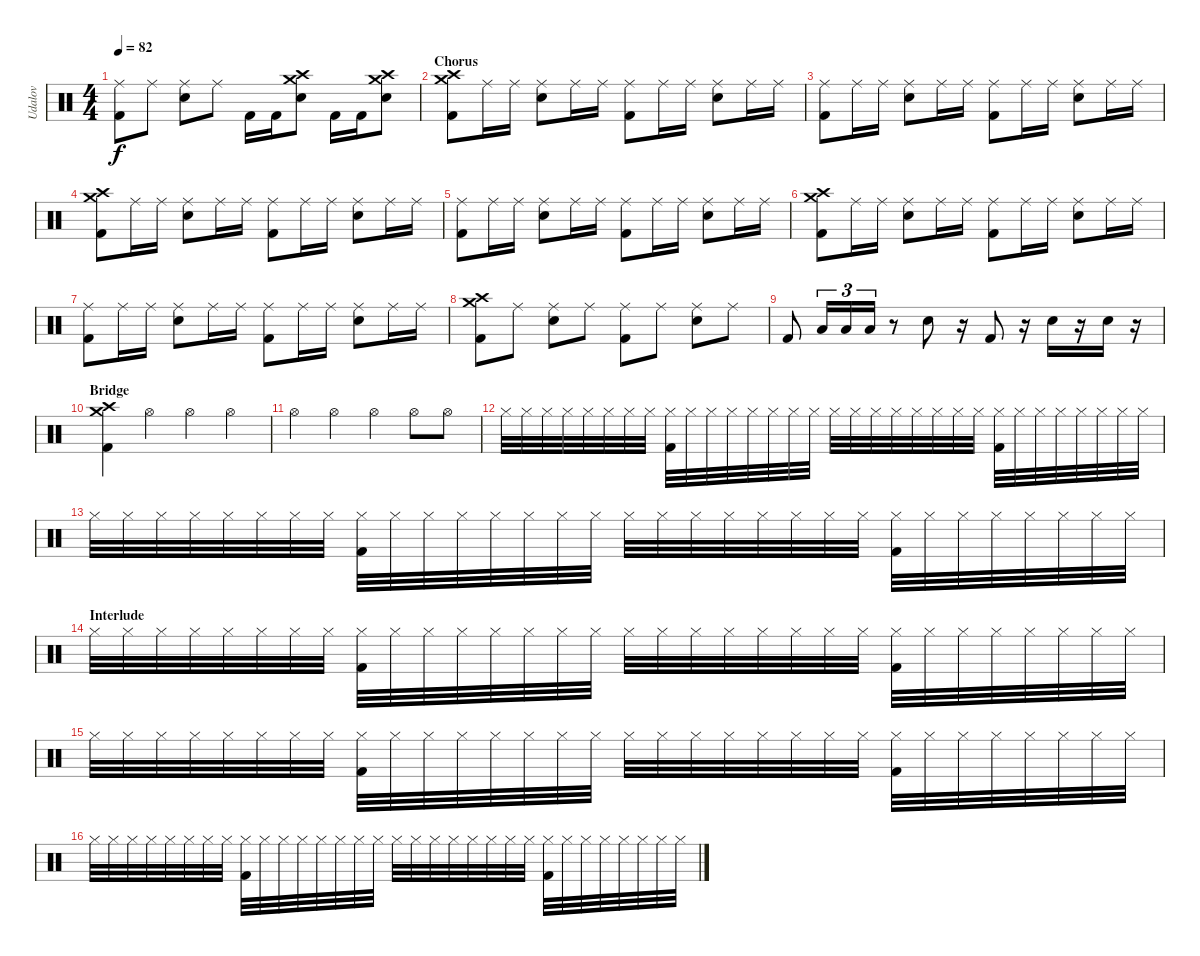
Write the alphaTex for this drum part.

\track ("Udalov" "Udalov") {instrument percussion}
\staff {score}
\articulation defaults
\ts (4 4)
\tempo 82
\clef neutral
\ks c
("Kick (hit) 2" "Ride (middle)").8{dy f} "Ride (middle)".8 ("Snare (hit) 2" "Ride (middle)").8 "Ride (middle)".8 "Kick (hit) 2".16 "Kick (hit) 2".16 ("Snare (hit) 2" "Crash high (hit)" "Crash medium (hit)").8 "Kick (hit) 2".16 "Kick (hit) 2".16 ("Snare (hit) 2" "Crash high (hit)" "Crash medium (hit)").8 |
\section ("" "Chorus")
("Kick (hit) 2" "Crash high (hit)" "Crash medium (hit)").8 "Ride (middle)".16 "Ride (middle)".16 ("Snare (hit) 2" "Ride (middle)").8 "Ride (middle)".16 "Ride (middle)".16 ("Kick (hit) 2" "Ride (middle)").8 "Ride (middle)".16 "Ride (middle)".16 ("Snare (hit) 2" "Ride (middle)").8 "Ride (middle)".16 "Ride (middle)".16 |
("Kick (hit) 2" "Ride (middle)").8 "Ride (middle)".16 "Ride (middle)".16 ("Snare (hit) 2" "Ride (middle)").8 "Ride (middle)".16 "Ride (middle)".16 ("Kick (hit) 2" "Ride (middle)").8 "Ride (middle)".16 "Ride (middle)".16 ("Snare (hit) 2" "Ride (middle)").8 "Ride (middle)".16 "Ride (middle)".16 |
("Kick (hit) 2" "Crash high (hit)" "Crash medium (hit)").8 "Ride (middle)".16 "Ride (middle)".16 ("Snare (hit) 2" "Ride (middle)").8 "Ride (middle)".16 "Ride (middle)".16 ("Kick (hit) 2" "Ride (middle)").8 "Ride (middle)".16 "Ride (middle)".16 ("Snare (hit) 2" "Ride (middle)").8 "Ride (middle)".16 "Ride (middle)".16 |
("Kick (hit) 2" "Ride (middle)").8 "Ride (middle)".16 "Ride (middle)".16 ("Snare (hit) 2" "Ride (middle)").8 "Ride (middle)".16 "Ride (middle)".16 ("Kick (hit) 2" "Ride (middle)").8 "Ride (middle)".16 "Ride (middle)".16 ("Snare (hit) 2" "Ride (middle)").8 "Ride (middle)".16 "Ride (middle)".16 |
("Kick (hit) 2" "Crash high (hit)" "Crash medium (hit)").8 "Ride (middle)".16 "Ride (middle)".16 ("Snare (hit) 2" "Ride (middle)").8 "Ride (middle)".16 "Ride (middle)".16 ("Kick (hit) 2" "Ride (middle)").8 "Ride (middle)".16 "Ride (middle)".16 ("Snare (hit) 2" "Ride (middle)").8 "Ride (middle)".16 "Ride (middle)".16 |
("Kick (hit) 2" "Ride (middle)").8 "Ride (middle)".16 "Ride (middle)".16 ("Snare (hit) 2" "Ride (middle)").8 "Ride (middle)".16 "Ride (middle)".16 ("Kick (hit) 2" "Ride (middle)").8 "Ride (middle)".16 "Ride (middle)".16 ("Snare (hit) 2" "Ride (middle)").8 "Ride (middle)".16 "Ride (middle)".16 |
("Kick (hit) 2" "Crash high (hit)" "Crash medium (hit)").8 "Ride (middle)".8 ("Snare (hit) 2" "Ride (middle)").8 "Ride (middle)".8 ("Kick (hit) 2" "Ride (middle)").8 "Ride (middle)".8 ("Snare (hit) 2" "Ride (middle)").8 "Ride (middle)".8 |
"Kick (hit) 2".8 "Low Tom (hit)".16{tu (3 2)} "Low Tom (hit)".16{tu (3 2)} "Low Tom (hit)".16{tu (3 2)} r.8 "Electric Snare (hit)".8 r.16 "Kick (hit) 2".8 r.16 "Snare (hit) 2".16 r.16 "Snare (hit) 2".16 r.16 |
\section ("" "Bridge")
("Kick (hit) 2" "Crash high (hit)" "Crash medium (hit)").4 "Hi-Hat (open)".4 "Hi-Hat (open)".4 "Hi-Hat (open)".4 |
"Hi-Hat (open)".4 "Hi-Hat (open)".4 "Hi-Hat (open)".4 "Hi-Hat (open)".8 "Hi-Hat (open)".8 |
"Hi-Hat (closed)".32 "Hi-Hat (closed)".32 "Hi-Hat (closed)".32 "Hi-Hat (closed)".32 "Hi-Hat (closed)".32 "Hi-Hat (closed)".32 "Hi-Hat (closed)".32 "Hi-Hat (closed)".32 ("Hi-Hat (closed)" "Kick (hit) 2").32 "Hi-Hat (closed)".32 "Hi-Hat (closed)".32 "Hi-Hat (closed)".32 "Hi-Hat (closed)".32 "Hi-Hat (closed)".32 "Hi-Hat (closed)".32 "Hi-Hat (closed)".32 "Hi-Hat (closed)".32 "Hi-Hat (closed)".32 "Hi-Hat (closed)".32 "Hi-Hat (closed)".32 "Hi-Hat (closed)".32 "Hi-Hat (closed)".32 "Hi-Hat (closed)".32 "Hi-Hat (closed)".32 ("Hi-Hat (closed)" "Kick (hit) 2").32 "Hi-Hat (closed)".32 "Hi-Hat (closed)".32 "Hi-Hat (closed)".32 "Hi-Hat (closed)".32 "Hi-Hat (closed)".32 "Hi-Hat (closed)".32 "Hi-Hat (closed)".32 |
"Hi-Hat (closed)".32 "Hi-Hat (closed)".32 "Hi-Hat (closed)".32 "Hi-Hat (closed)".32 "Hi-Hat (closed)".32 "Hi-Hat (closed)".32 "Hi-Hat (closed)".32 "Hi-Hat (closed)".32 ("Hi-Hat (closed)" "Kick (hit) 2").32 "Hi-Hat (closed)".32 "Hi-Hat (closed)".32 "Hi-Hat (closed)".32 "Hi-Hat (closed)".32 "Hi-Hat (closed)".32 "Hi-Hat (closed)".32 "Hi-Hat (closed)".32 "Hi-Hat (closed)".32 "Hi-Hat (closed)".32 "Hi-Hat (closed)".32 "Hi-Hat (closed)".32 "Hi-Hat (closed)".32 "Hi-Hat (closed)".32 "Hi-Hat (closed)".32 "Hi-Hat (closed)".32 ("Hi-Hat (closed)" "Kick (hit) 2").32 "Hi-Hat (closed)".32 "Hi-Hat (closed)".32 "Hi-Hat (closed)".32 "Hi-Hat (closed)".32 "Hi-Hat (closed)".32 "Hi-Hat (closed)".32 "Hi-Hat (closed)".32 |
\section ("" "Interlude")
"Hi-Hat (closed)".32 "Hi-Hat (closed)".32 "Hi-Hat (closed)".32 "Hi-Hat (closed)".32 "Hi-Hat (closed)".32 "Hi-Hat (closed)".32 "Hi-Hat (closed)".32 "Hi-Hat (closed)".32 ("Hi-Hat (closed)" "Kick (hit) 2").32 "Hi-Hat (closed)".32 "Hi-Hat (closed)".32 "Hi-Hat (closed)".32 "Hi-Hat (closed)".32 "Hi-Hat (closed)".32 "Hi-Hat (closed)".32 "Hi-Hat (closed)".32 "Hi-Hat (closed)".32 "Hi-Hat (closed)".32 "Hi-Hat (closed)".32 "Hi-Hat (closed)".32 "Hi-Hat (closed)".32 "Hi-Hat (closed)".32 "Hi-Hat (closed)".32 "Hi-Hat (closed)".32 ("Hi-Hat (closed)" "Kick (hit) 2").32 "Hi-Hat (closed)".32 "Hi-Hat (closed)".32 "Hi-Hat (closed)".32 "Hi-Hat (closed)".32 "Hi-Hat (closed)".32 "Hi-Hat (closed)".32 "Hi-Hat (closed)".32 |
"Hi-Hat (closed)".32 "Hi-Hat (closed)".32 "Hi-Hat (closed)".32 "Hi-Hat (closed)".32 "Hi-Hat (closed)".32 "Hi-Hat (closed)".32 "Hi-Hat (closed)".32 "Hi-Hat (closed)".32 ("Hi-Hat (closed)" "Kick (hit) 2").32 "Hi-Hat (closed)".32 "Hi-Hat (closed)".32 "Hi-Hat (closed)".32 "Hi-Hat (closed)".32 "Hi-Hat (closed)".32 "Hi-Hat (closed)".32 "Hi-Hat (closed)".32 "Hi-Hat (closed)".32 "Hi-Hat (closed)".32 "Hi-Hat (closed)".32 "Hi-Hat (closed)".32 "Hi-Hat (closed)".32 "Hi-Hat (closed)".32 "Hi-Hat (closed)".32 "Hi-Hat (closed)".32 ("Hi-Hat (closed)" "Kick (hit) 2").32 "Hi-Hat (closed)".32 "Hi-Hat (closed)".32 "Hi-Hat (closed)".32 "Hi-Hat (closed)".32 "Hi-Hat (closed)".32 "Hi-Hat (closed)".32 "Hi-Hat (closed)".32 |
"Hi-Hat (closed)".32 "Hi-Hat (closed)".32 "Hi-Hat (closed)".32 "Hi-Hat (closed)".32 "Hi-Hat (closed)".32 "Hi-Hat (closed)".32 "Hi-Hat (closed)".32 "Hi-Hat (closed)".32 ("Hi-Hat (closed)" "Kick (hit) 2").32 "Hi-Hat (closed)".32 "Hi-Hat (closed)".32 "Hi-Hat (closed)".32 "Hi-Hat (closed)".32 "Hi-Hat (closed)".32 "Hi-Hat (closed)".32 "Hi-Hat (closed)".32 "Hi-Hat (closed)".32 "Hi-Hat (closed)".32 "Hi-Hat (closed)".32 "Hi-Hat (closed)".32 "Hi-Hat (closed)".32 "Hi-Hat (closed)".32 "Hi-Hat (closed)".32 "Hi-Hat (closed)".32 ("Hi-Hat (closed)" "Kick (hit) 2").32 "Hi-Hat (closed)".32 "Hi-Hat (closed)".32 "Hi-Hat (closed)".32 "Hi-Hat (closed)".32 "Hi-Hat (closed)".32 "Hi-Hat (closed)".32 "Hi-Hat (closed)".32
